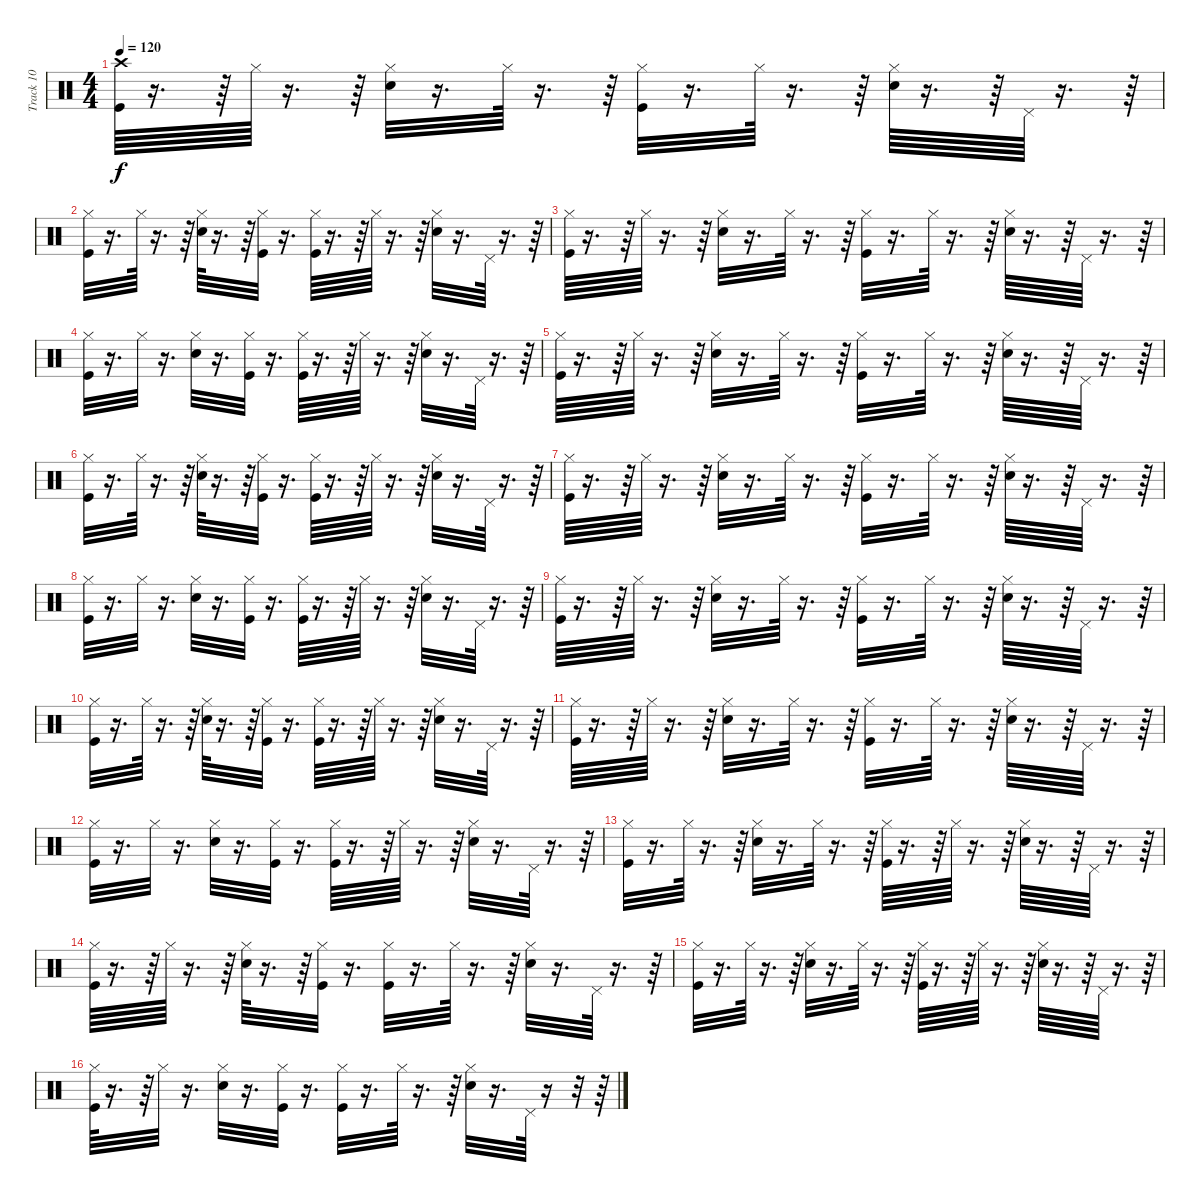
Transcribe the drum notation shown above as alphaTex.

\track ("Track 10" "Track 10") {instrument percussion}
\staff {score}
\articulation defaults
\ts (4 4)
\tempo 120
\clef neutral
\ks c
("Kick (hit)" "Crash high (hit)").64{dy f} r.16{d} r.64 "Hi-Hat (closed)".64 r.16{d} r.64 ("Snare (hit) 2" "Hi-Hat (closed)").32 r.16{d} "Hi-Hat (closed)".64 r.16{d} r.64 ("Kick (hit)" "Hi-Hat (closed)").32 r.16{d} "Hi-Hat (closed)".64 r.16{d} r.64 ("Snare (hit) 2" "Hi-Hat (closed)").64 r.16{d} r.64 "Pedal Hi-Hat (hit)".64 r.16{d} r.64 |
("Kick (hit)" "Hi-Hat (closed)").32 r.16{d} "Hi-Hat (closed)".64 r.16{d} r.64 ("Snare (hit) 2" "Hi-Hat (closed)").64 r.16{d} r.64 ("Kick (hit)" "Hi-Hat (closed)").32 r.16{d} ("Kick (hit)" "Hi-Hat (closed)").64 r.16{d} r.64 "Hi-Hat (closed)".64 r.16{d} r.64 ("Snare (hit) 2" "Hi-Hat (closed)").32 r.16{d} "Pedal Hi-Hat (hit)".64 r.16{d} r.64 |
("Kick (hit)" "Hi-Hat (closed)").64 r.16{d} r.64 "Hi-Hat (closed)".64 r.16{d} r.64 ("Snare (hit) 2" "Hi-Hat (closed)").32 r.16{d} "Hi-Hat (closed)".64 r.16{d} r.64 ("Kick (hit)" "Hi-Hat (closed)").32 r.16{d} "Hi-Hat (closed)".64 r.16{d} r.64 ("Snare (hit) 2" "Hi-Hat (closed)").64 r.16{d} r.64 "Pedal Hi-Hat (hit)".64 r.16{d} r.64 |
("Kick (hit)" "Hi-Hat (closed)").32 r.16{d} "Hi-Hat (closed)".32 r.16{d} ("Snare (hit) 2" "Hi-Hat (closed)").32 r.16{d} ("Kick (hit)" "Hi-Hat (closed)").32 r.16{d} ("Kick (hit)" "Hi-Hat (closed)").64 r.16{d} r.64 "Hi-Hat (closed)".64 r.16{d} r.64 ("Snare (hit) 2" "Hi-Hat (closed)").32 r.16{d} "Pedal Hi-Hat (hit)".64 r.16{d} r.64 |
("Kick (hit)" "Hi-Hat (closed)").64 r.16{d} r.64 "Hi-Hat (closed)".64 r.16{d} r.64 ("Snare (hit) 2" "Hi-Hat (closed)").32 r.16{d} "Hi-Hat (closed)".64 r.16{d} r.64 ("Kick (hit)" "Hi-Hat (closed)").32 r.16{d} "Hi-Hat (closed)".64 r.16{d} r.64 ("Snare (hit) 2" "Hi-Hat (closed)").64 r.16{d} r.64 "Pedal Hi-Hat (hit)".64 r.16{d} r.64 |
("Kick (hit)" "Hi-Hat (closed)").32 r.16{d} "Hi-Hat (closed)".64 r.16{d} r.64 ("Snare (hit) 2" "Hi-Hat (closed)").64 r.16{d} r.64 ("Kick (hit)" "Hi-Hat (closed)").32 r.16{d} ("Kick (hit)" "Hi-Hat (closed)").64 r.16{d} r.64 "Hi-Hat (closed)".64 r.16{d} r.64 ("Snare (hit) 2" "Hi-Hat (closed)").32 r.16{d} "Pedal Hi-Hat (hit)".64 r.16{d} r.64 |
("Kick (hit)" "Hi-Hat (closed)").64 r.16{d} r.64 "Hi-Hat (closed)".64 r.16{d} r.64 ("Snare (hit) 2" "Hi-Hat (closed)").32 r.16{d} "Hi-Hat (closed)".64 r.16{d} r.64 ("Kick (hit)" "Hi-Hat (closed)").32 r.16{d} "Hi-Hat (closed)".64 r.16{d} r.64 ("Snare (hit) 2" "Hi-Hat (closed)").64 r.16{d} r.64 "Pedal Hi-Hat (hit)".64 r.16{d} r.64 |
("Kick (hit)" "Hi-Hat (closed)").32 r.16{d} "Hi-Hat (closed)".32 r.16{d} ("Snare (hit) 2" "Hi-Hat (closed)").32 r.16{d} ("Kick (hit)" "Hi-Hat (closed)").32 r.16{d} ("Kick (hit)" "Hi-Hat (closed)").64 r.16{d} r.64 "Hi-Hat (closed)".64 r.16{d} r.64 ("Snare (hit) 2" "Hi-Hat (closed)").32 r.16{d} "Pedal Hi-Hat (hit)".64 r.16{d} r.64 |
("Kick (hit)" "Hi-Hat (closed)").64 r.16{d} r.64 "Hi-Hat (closed)".64 r.16{d} r.64 ("Snare (hit) 2" "Hi-Hat (closed)").32 r.16{d} "Hi-Hat (closed)".64 r.16{d} r.64 ("Kick (hit)" "Hi-Hat (closed)").32 r.16{d} "Hi-Hat (closed)".64 r.16{d} r.64 ("Snare (hit) 2" "Hi-Hat (closed)").64 r.16{d} r.64 "Pedal Hi-Hat (hit)".64 r.16{d} r.64 |
("Kick (hit)" "Hi-Hat (closed)").32 r.16{d} "Hi-Hat (closed)".64 r.16{d} r.64 ("Snare (hit) 2" "Hi-Hat (closed)").64 r.16{d} r.64 ("Kick (hit)" "Hi-Hat (closed)").32 r.16{d} ("Kick (hit)" "Hi-Hat (closed)").64 r.16{d} r.64 "Hi-Hat (closed)".64 r.16{d} r.64 ("Snare (hit) 2" "Hi-Hat (closed)").32 r.16{d} "Pedal Hi-Hat (hit)".64 r.16{d} r.64 |
("Kick (hit)" "Hi-Hat (closed)").64 r.16{d} r.64 "Hi-Hat (closed)".64 r.16{d} r.64 ("Snare (hit) 2" "Hi-Hat (closed)").32 r.16{d} "Hi-Hat (closed)".64 r.16{d} r.64 ("Kick (hit)" "Hi-Hat (closed)").32 r.16{d} "Hi-Hat (closed)".64 r.16{d} r.64 ("Snare (hit) 2" "Hi-Hat (closed)").64 r.16{d} r.64 "Pedal Hi-Hat (hit)".64 r.16{d} r.64 |
("Kick (hit)" "Hi-Hat (closed)").32 r.16{d} "Hi-Hat (closed)".32 r.16{d} ("Snare (hit) 2" "Hi-Hat (closed)").32 r.16{d} ("Kick (hit)" "Hi-Hat (closed)").32 r.16{d} ("Kick (hit)" "Hi-Hat (closed)").64 r.16{d} r.64 "Hi-Hat (closed)".64 r.16{d} r.64 ("Snare (hit) 2" "Hi-Hat (closed)").32 r.16{d} "Pedal Hi-Hat (hit)".64 r.16{d} r.64 |
("Kick (hit)" "Hi-Hat (closed)").32 r.16{d} "Hi-Hat (closed)".64 r.16{d} r.64 ("Snare (hit) 2" "Hi-Hat (closed)").32 r.16{d} "Hi-Hat (closed)".64 r.16{d} r.64 ("Kick (hit)" "Hi-Hat (closed)").64 r.16{d} r.64 "Hi-Hat (closed)".64 r.16{d} r.64 ("Snare (hit) 2" "Hi-Hat (closed)").64 r.16{d} r.64 "Pedal Hi-Hat (hit)".64 r.16{d} r.64 |
("Kick (hit)" "Hi-Hat (closed)").64 r.16{d} r.64 "Hi-Hat (closed)".64 r.16{d} r.64 ("Snare (hit) 2" "Hi-Hat (closed)").64 r.16{d} r.64 ("Kick (hit)" "Hi-Hat (closed)").32 r.16{d} ("Kick (hit)" "Hi-Hat (closed)").32 r.16{d} "Hi-Hat (closed)".64 r.16{d} r.64 ("Snare (hit) 2" "Hi-Hat (closed)").32 r.16{d} "Pedal Hi-Hat (hit)".64 r.16{d} r.64 |
("Kick (hit)" "Hi-Hat (closed)").32 r.16{d} "Hi-Hat (closed)".64 r.16{d} r.64 ("Snare (hit) 2" "Hi-Hat (closed)").32 r.16{d} "Hi-Hat (closed)".64 r.16{d} r.64 ("Kick (hit)" "Hi-Hat (closed)").64 r.16{d} r.64 "Hi-Hat (closed)".64 r.16{d} r.64 ("Snare (hit) 2" "Hi-Hat (closed)").64 r.16{d} r.64 "Pedal Hi-Hat (hit)".64 r.16{d} r.64 |
("Kick (hit)" "Hi-Hat (closed)").64 r.16{d} r.64 "Hi-Hat (closed)".32 r.16{d} ("Snare (hit) 2" "Hi-Hat (closed)").32 r.16{d} ("Kick (hit)" "Hi-Hat (closed)").32 r.16{d} ("Kick (hit)" "Hi-Hat (closed)").32 r.16{d} "Hi-Hat (closed)".64 r.16{d} r.64 ("Snare (hit) 2" "Hi-Hat (closed)").32 r.16{d} "Pedal Hi-Hat (hit)".64 r.16 r.32 r.64
